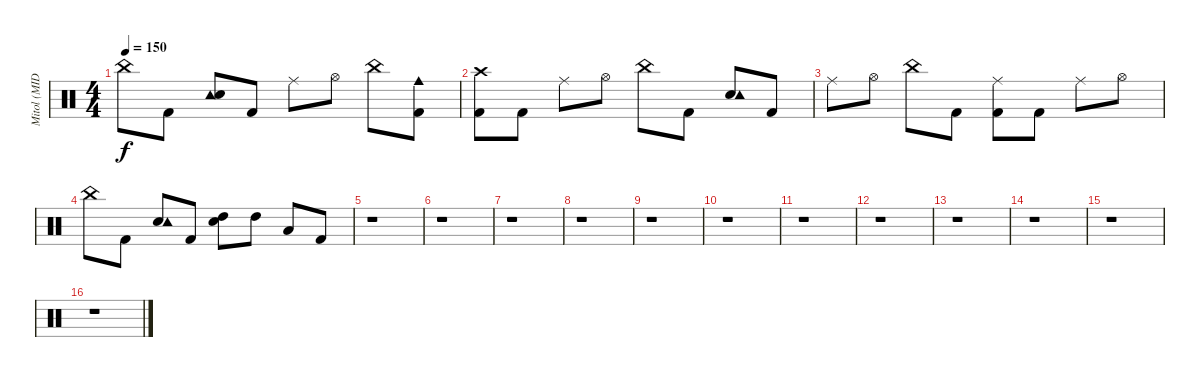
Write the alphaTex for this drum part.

\track ("Mitol (MIDI)" "Mitol (MID") {instrument percussion}
\staff {score}
\articulation defaults
\ts (4 4)
\tempo 150
\clef neutral
\ks c "China (hit)".8{dy f} "Kick (hit) 2".8
("Tambourine (hit)" "Electric Snare (hit)").8 "Kick (hit) 2".8 "Ride (middle)".8 "Hi-Hat (open)".8 "China (hit)".8 ("Kick (hit) 2" "Cowbell medium (hit)").8 |
("Crash high (hit)" "Kick (hit) 2").8 "Kick (hit) 2".8 "Ride (middle)".8 "Hi-Hat (open)".8 "China (hit)".8 "Kick (hit) 2".8 ("Electric Snare (hit)" "Tambourine (hit)").8 "Kick (hit) 2".8 |
"Ride (middle)".8 "Hi-Hat (open)".8 "China (hit)".8 "Kick (hit) 2".8 ("Kick (hit) 2" "Ride (middle)").8 "Kick (hit) 2".8 "Ride (middle)".8 "Hi-Hat (open)".8 |
"China (hit)".8 "Kick (hit) 2".8 ("Electric Snare (hit)" "Tambourine (hit)").8 "Kick (hit) 2".8 ("High Tom (hit)" "Electric Snare (hit)").8 "High Tom (hit)".8 "Low Tom (hit)".8 "Kick (hit) 2".8 |
r.1 |
r.1 |
r.1 |
r.1 |
r.1 |
r.1 |
r.1 |
r.1 |
r.1 |
r.1 |
r.1 |
r.1
